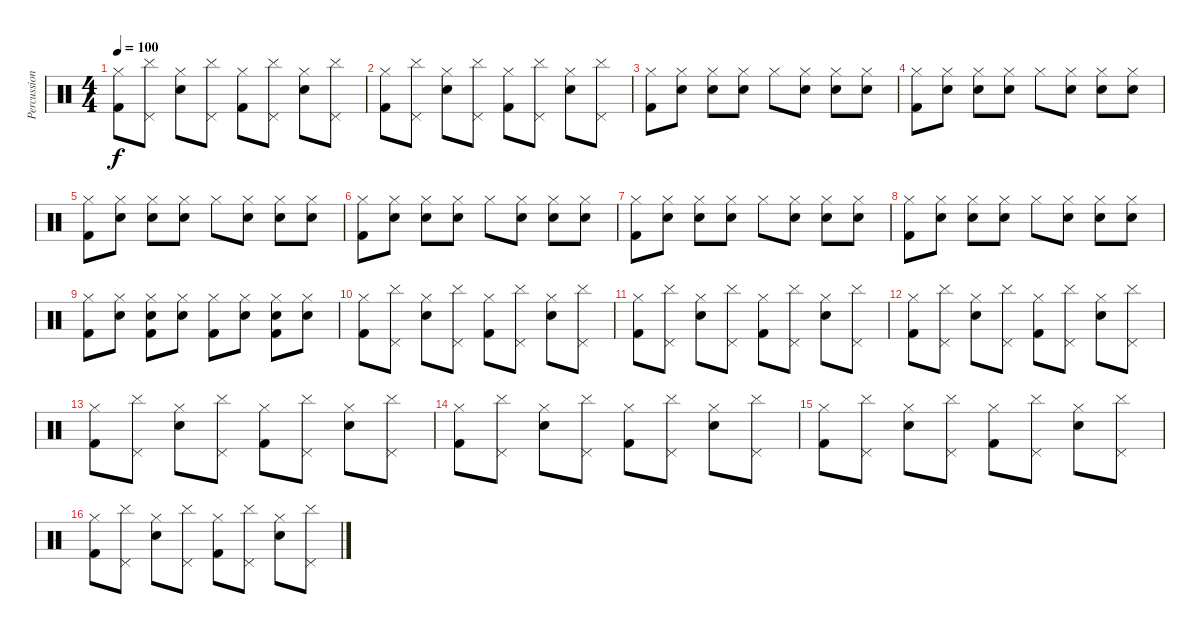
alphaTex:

\track ("Percussion" "Percussion") {solo instrument percussion}
\staff {score}
\articulation defaults
\ts (4 4)
\tempo 100
\clef neutral
\ks c
("Hi-Hat (closed)" "Kick (hit) 2").8{dy f} ("Pedal Hi-Hat (hit)" "Cymbal (hit)").8 ("Hi-Hat (closed)" "Snare (hit) 2").8 ("Pedal Hi-Hat (hit)" "Cymbal (hit)").8 ("Hi-Hat (closed)" "Kick (hit) 2").8 ("Pedal Hi-Hat (hit)" "Cymbal (hit)").8 ("Hi-Hat (closed)" "Snare (hit) 2").8 ("Pedal Hi-Hat (hit)" "Cymbal (hit)").8 |
("Hi-Hat (closed)" "Kick (hit) 2").8 ("Pedal Hi-Hat (hit)" "Cymbal (hit)").8 ("Hi-Hat (closed)" "Snare (hit) 2").8 ("Pedal Hi-Hat (hit)" "Cymbal (hit)").8 ("Hi-Hat (closed)" "Kick (hit) 2").8 ("Pedal Hi-Hat (hit)" "Cymbal (hit)").8 ("Hi-Hat (closed)" "Snare (hit) 2").8 ("Pedal Hi-Hat (hit)" "Cymbal (hit)").8 |
("Hi-Hat (closed)" "Kick (hit) 2").8 ("Hi-Hat (closed)" "Hand Clap (hit)").8 ("Hi-Hat (closed)" "Snare (hit) 2").8 ("Hi-Hat (closed)" "Hand Clap (hit)").8 "Hi-Hat (closed)".8 ("Hi-Hat (closed)" "Hand Clap (hit)").8 ("Hi-Hat (closed)" "Snare (hit) 2").8 ("Hi-Hat (closed)" "Hand Clap (hit)").8 |
("Hi-Hat (closed)" "Kick (hit) 2").8 ("Hi-Hat (closed)" "Hand Clap (hit)").8 ("Hi-Hat (closed)" "Snare (hit) 2").8 ("Hi-Hat (closed)" "Hand Clap (hit)").8 "Hi-Hat (closed)".8 ("Hi-Hat (closed)" "Hand Clap (hit)").8 ("Hi-Hat (closed)" "Snare (hit) 2").8 ("Hi-Hat (closed)" "Hand Clap (hit)").8 |
("Hi-Hat (closed)" "Kick (hit) 2").8 ("Hi-Hat (closed)" "Hand Clap (hit)").8 ("Hi-Hat (closed)" "Snare (hit) 2").8 ("Hi-Hat (closed)" "Hand Clap (hit)").8 "Hi-Hat (closed)".8 ("Hi-Hat (closed)" "Hand Clap (hit)").8 ("Hi-Hat (closed)" "Snare (hit) 2").8 ("Hi-Hat (closed)" "Hand Clap (hit)").8 |
("Hi-Hat (closed)" "Kick (hit) 2").8 ("Hi-Hat (closed)" "Hand Clap (hit)").8 ("Hi-Hat (closed)" "Snare (hit) 2").8 ("Hi-Hat (closed)" "Hand Clap (hit)").8 "Hi-Hat (closed)".8 ("Hi-Hat (closed)" "Hand Clap (hit)").8 ("Hi-Hat (closed)" "Snare (hit) 2").8 ("Hi-Hat (closed)" "Hand Clap (hit)").8 |
("Hi-Hat (closed)" "Kick (hit) 2").8 ("Hi-Hat (closed)" "Hand Clap (hit)").8 ("Hi-Hat (closed)" "Snare (hit) 2").8 ("Hi-Hat (closed)" "Hand Clap (hit)").8 "Hi-Hat (closed)".8 ("Hi-Hat (closed)" "Hand Clap (hit)").8 ("Hi-Hat (closed)" "Snare (hit) 2").8 ("Hi-Hat (closed)" "Hand Clap (hit)").8 |
("Hi-Hat (closed)" "Kick (hit) 2").8 ("Hi-Hat (closed)" "Hand Clap (hit)").8 ("Hi-Hat (closed)" "Snare (hit) 2").8 ("Hi-Hat (closed)" "Hand Clap (hit)").8 "Hi-Hat (closed)".8 ("Hi-Hat (closed)" "Hand Clap (hit)").8 ("Hi-Hat (closed)" "Snare (hit) 2").8 ("Hi-Hat (closed)" "Hand Clap (hit)").8 |
("Hi-Hat (closed)" "Kick (hit) 2").8 ("Hi-Hat (closed)" "Hand Clap (hit)").8 ("Hi-Hat (closed)" "Snare (hit) 2" "Kick (hit) 2").8 ("Hi-Hat (closed)" "Hand Clap (hit)").8 ("Hi-Hat (closed)" "Kick (hit) 2").8 ("Hi-Hat (closed)" "Hand Clap (hit)").8 ("Hi-Hat (closed)" "Snare (hit) 2" "Kick (hit) 2").8 ("Hi-Hat (closed)" "Hand Clap (hit)").8 |
("Hi-Hat (closed)" "Kick (hit) 2").8 ("Pedal Hi-Hat (hit)" "Cymbal (hit)").8 ("Hi-Hat (closed)" "Snare (hit) 2").8 ("Pedal Hi-Hat (hit)" "Cymbal (hit)").8 ("Hi-Hat (closed)" "Kick (hit) 2").8 ("Pedal Hi-Hat (hit)" "Cymbal (hit)").8 ("Hi-Hat (closed)" "Snare (hit) 2").8 ("Pedal Hi-Hat (hit)" "Cymbal (hit)").8 |
("Hi-Hat (closed)" "Kick (hit) 2").8 ("Pedal Hi-Hat (hit)" "Cymbal (hit)").8 ("Hi-Hat (closed)" "Snare (hit) 2").8 ("Pedal Hi-Hat (hit)" "Cymbal (hit)").8 ("Hi-Hat (closed)" "Kick (hit) 2").8 ("Pedal Hi-Hat (hit)" "Cymbal (hit)").8 ("Hi-Hat (closed)" "Snare (hit) 2").8 ("Pedal Hi-Hat (hit)" "Cymbal (hit)").8 |
("Hi-Hat (closed)" "Kick (hit) 2").8 ("Pedal Hi-Hat (hit)" "Cymbal (hit)").8 ("Hi-Hat (closed)" "Snare (hit) 2").8 ("Pedal Hi-Hat (hit)" "Cymbal (hit)").8 ("Hi-Hat (closed)" "Kick (hit) 2").8 ("Pedal Hi-Hat (hit)" "Cymbal (hit)").8 ("Hi-Hat (closed)" "Snare (hit) 2").8 ("Pedal Hi-Hat (hit)" "Cymbal (hit)").8 |
("Hi-Hat (closed)" "Kick (hit) 2").8 ("Pedal Hi-Hat (hit)" "Cymbal (hit)").8 ("Hi-Hat (closed)" "Snare (hit) 2").8 ("Pedal Hi-Hat (hit)" "Cymbal (hit)").8 ("Hi-Hat (closed)" "Kick (hit) 2").8 ("Pedal Hi-Hat (hit)" "Cymbal (hit)").8 ("Hi-Hat (closed)" "Snare (hit) 2").8 ("Pedal Hi-Hat (hit)" "Cymbal (hit)").8 |
("Hi-Hat (closed)" "Kick (hit) 2").8 ("Pedal Hi-Hat (hit)" "Cymbal (hit)").8 ("Hi-Hat (closed)" "Snare (hit) 2").8 ("Pedal Hi-Hat (hit)" "Cymbal (hit)").8 ("Hi-Hat (closed)" "Kick (hit) 2").8 ("Pedal Hi-Hat (hit)" "Cymbal (hit)").8 ("Hi-Hat (closed)" "Snare (hit) 2").8 ("Pedal Hi-Hat (hit)" "Cymbal (hit)").8 |
("Hi-Hat (closed)" "Kick (hit) 2").8 ("Pedal Hi-Hat (hit)" "Cymbal (hit)").8 ("Hi-Hat (closed)" "Snare (hit) 2").8 ("Pedal Hi-Hat (hit)" "Cymbal (hit)").8 ("Hi-Hat (closed)" "Kick (hit) 2").8 ("Pedal Hi-Hat (hit)" "Cymbal (hit)").8 ("Hi-Hat (closed)" "Snare (hit) 2").8 ("Pedal Hi-Hat (hit)" "Cymbal (hit)").8 |
("Hi-Hat (closed)" "Kick (hit) 2").8 ("Pedal Hi-Hat (hit)" "Cymbal (hit)").8 ("Hi-Hat (closed)" "Snare (hit) 2").8 ("Pedal Hi-Hat (hit)" "Cymbal (hit)").8 ("Hi-Hat (closed)" "Kick (hit) 2").8 ("Pedal Hi-Hat (hit)" "Cymbal (hit)").8 ("Hi-Hat (closed)" "Snare (hit) 2").8 ("Pedal Hi-Hat (hit)" "Cymbal (hit)").8
